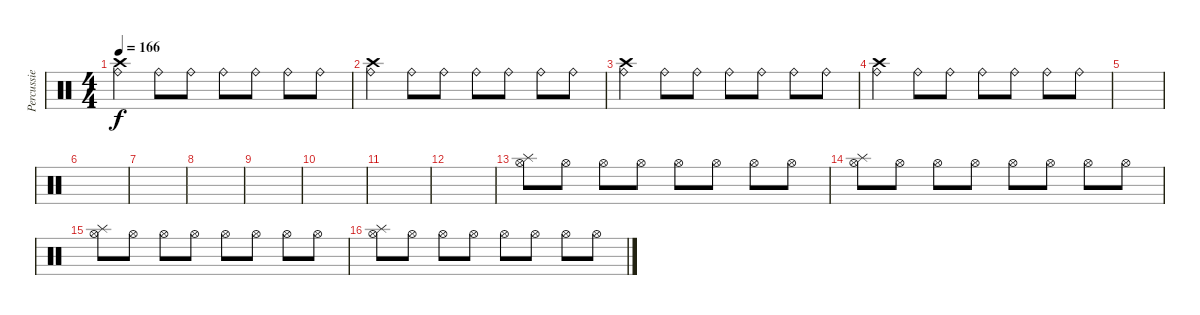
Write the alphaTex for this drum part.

\track ("Percussie" "Percussie") {instrument percussion}
\staff {score}
\articulation defaults
\ts (4 4)
\tempo 166
\clef neutral
\ks c
("Crash high (hit)" "Ride (bell)").4{dy f} "Ride (bell)".8 "Ride (bell)".8 "Ride (bell)".8 "Ride (bell)".8 "Ride (bell)".8 "Ride (bell)".8 |
("Crash high (hit)" "Ride (bell)").4 "Ride (bell)".8 "Ride (bell)".8 "Ride (bell)".8 "Ride (bell)".8 "Ride (bell)".8 "Ride (bell)".8 |
("Crash high (hit)" "Ride (bell)").4 "Ride (bell)".8 "Ride (bell)".8 "Ride (bell)".8 "Ride (bell)".8 "Ride (bell)".8 "Ride (bell)".8 |
("Crash high (hit)" "Ride (bell)").4 "Ride (bell)".8 "Ride (bell)".8 "Ride (bell)".8 "Ride (bell)".8 "Ride (bell)".8 "Ride (bell)".8 |
|
|
|
|
|
|
|
|
("Hi-Hat (open)" "Splash (hit)").8 "Hi-Hat (open)".8 "Hi-Hat (open)".8 "Hi-Hat (open)".8 "Hi-Hat (open)".8 "Hi-Hat (open)".8 "Hi-Hat (open)".8 "Hi-Hat (open)".8 |
("Hi-Hat (open)" "Splash (hit)").8 "Hi-Hat (open)".8 "Hi-Hat (open)".8 "Hi-Hat (open)".8 "Hi-Hat (open)".8 "Hi-Hat (open)".8 "Hi-Hat (open)".8 "Hi-Hat (open)".8 |
("Hi-Hat (open)" "Splash (hit)").8 "Hi-Hat (open)".8 "Hi-Hat (open)".8 "Hi-Hat (open)".8 "Hi-Hat (open)".8 "Hi-Hat (open)".8 "Hi-Hat (open)".8 "Hi-Hat (open)".8 |
("Hi-Hat (open)" "Splash (hit)").8 "Hi-Hat (open)".8 "Hi-Hat (open)".8 "Hi-Hat (open)".8 "Hi-Hat (open)".8 "Hi-Hat (open)".8 "Hi-Hat (open)".8 "Hi-Hat (open)".8
